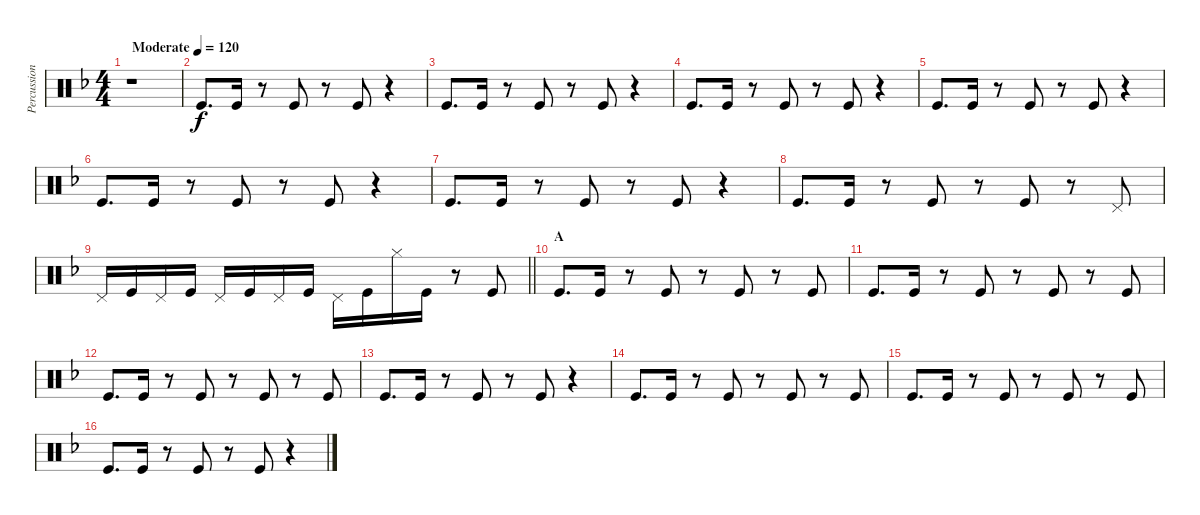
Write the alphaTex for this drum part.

\track ("Percussion foot" "Percussion") {instrument percussion}
\staff {score}
\articulation defaults
\ts (4 4)
\tempo (120 "Moderate")
\clef neutral
\ks f
r.1{dy f} |
"Kick (hit)".8{d} "Kick (hit)".16 r.8 "Kick (hit)".8 r.8 "Kick (hit)".8 r.4 |
"Kick (hit)".8{d} "Kick (hit)".16 r.8 "Kick (hit)".8 r.8 "Kick (hit)".8 r.4 |
"Kick (hit)".8{d} "Kick (hit)".16 r.8 "Kick (hit)".8 r.8 "Kick (hit)".8 r.4 |
"Kick (hit)".8{d} "Kick (hit)".16 r.8 "Kick (hit)".8 r.8 "Kick (hit)".8 r.4 |
"Kick (hit)".8{d} "Kick (hit)".16 r.8 "Kick (hit)".8 r.8 "Kick (hit)".8 r.4 |
"Kick (hit)".8{d} "Kick (hit)".16 r.8 "Kick (hit)".8 r.8 "Kick (hit)".8 r.4 |
"Kick (hit)".8{d} "Kick (hit)".16 r.8 "Kick (hit)".8 r.8 "Kick (hit)".8 r.8 "Pedal Hi-Hat (hit)".8 |
\barLineRight lightlight "Pedal Hi-Hat (hit)".16 "Kick (hit)".16 "Pedal Hi-Hat (hit)".16 "Kick (hit)".16 "Pedal Hi-Hat (hit)".16 "Kick (hit)".16 "Pedal Hi-Hat (hit)".16 "Kick (hit)".16 "Pedal Hi-Hat (hit)".16 "Kick (hit)".16 "Hi-Hat (closed)".16 "Kick (hit)".16
r.8 "Kick (hit)".8 |
\section ("" "A")
"Kick (hit)".8{d} "Kick (hit)".16 r.8 "Kick (hit)".8 r.8 "Kick (hit)".8 r.8 "Kick (hit)".8 |
"Kick (hit)".8{d} "Kick (hit)".16 r.8 "Kick (hit)".8 r.8 "Kick (hit)".8 r.8 "Kick (hit)".8 |
"Kick (hit)".8{d} "Kick (hit)".16 r.8 "Kick (hit)".8 r.8 "Kick (hit)".8 r.8 "Kick (hit)".8 |
"Kick (hit)".8{d} "Kick (hit)".16 r.8 "Kick (hit)".8 r.8 "Kick (hit)".8 r.4 |
"Kick (hit)".8{d} "Kick (hit)".16 r.8 "Kick (hit)".8 r.8 "Kick (hit)".8 r.8 "Kick (hit)".8 |
"Kick (hit)".8{d} "Kick (hit)".16 r.8 "Kick (hit)".8 r.8 "Kick (hit)".8 r.8 "Kick (hit)".8 |
"Kick (hit)".8{d} "Kick (hit)".16 r.8 "Kick (hit)".8 r.8 "Kick (hit)".8 r.4
